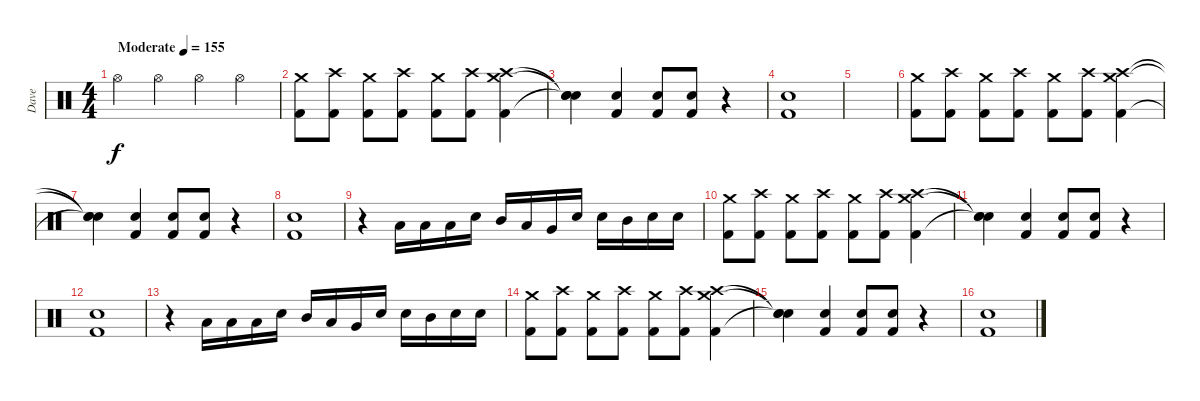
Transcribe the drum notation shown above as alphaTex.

\track ("Dave" "Dave") {instrument percussion}
\staff {score}
\articulation defaults
\ts (4 4)
\tempo (155 "Moderate")
\clef neutral
\ks c "Hi-Hat (open)".4{dy f} "Hi-Hat (open)".4 "Hi-Hat (open)".4 "Hi-Hat (open)".4
|
("Crash medium (hit)" "Kick (hit) 2").8 ("Crash high (hit)" "Kick (hit) 2").8 ("Crash medium (hit)" "Kick (hit) 2").8 ("Crash high (hit)" "Kick (hit) 2").8 ("Crash medium (hit)" "Kick (hit) 2").8 ("Crash high (hit)" "Kick (hit) 2").8 ("Crash medium (hit)" "Crash high (hit)" "Kick (hit) 2").4 |
("Snare (hit)"{t} "Snare (hit)"{t} "Snare (hit)"{t}).4 ("Snare (hit) 2" "Kick (hit) 2").4 ("Snare (hit) 2" "Kick (hit) 2").8 ("Snare (hit) 2" "Kick (hit) 2").8 r.4 |
("Snare (hit) 2" "Kick (hit) 2").1 |
|
("Crash medium (hit)" "Kick (hit) 2").8 ("Crash high (hit)" "Kick (hit) 2").8 ("Crash medium (hit)" "Kick (hit) 2").8 ("Crash high (hit)" "Kick (hit) 2").8 ("Crash medium (hit)" "Kick (hit) 2").8 ("Crash high (hit)" "Kick (hit) 2").8 ("Crash medium (hit)" "Crash high (hit)" "Kick (hit) 2").4 |
("Snare (hit)"{t} "Snare (hit)"{t} "Snare (hit)"{t}).4 ("Snare (hit) 2" "Kick (hit) 2").4 ("Snare (hit) 2" "Kick (hit) 2").8 ("Snare (hit) 2" "Kick (hit) 2").8 r.4 |
("Snare (hit) 2" "Kick (hit) 2").1 |
r.4 "Low Tom (hit)".16 "Low Tom (hit)".16 "Low Tom (hit)".16 "Snare (hit) 2".16 "Mid Tom (hit)".16 "Low Tom (hit)".16 "Very Low Tom (hit)".16 "Snare (hit) 2".16 "Snare (hit) 2".16 "Mid Tom (hit)".16 "Snare (hit) 2".16 "Snare (hit) 2".16 |
("Crash medium (hit)" "Kick (hit) 2").8 ("Crash high (hit)" "Kick (hit) 2").8 ("Crash medium (hit)" "Kick (hit) 2").8 ("Crash high (hit)" "Kick (hit) 2").8 ("Crash medium (hit)" "Kick (hit) 2").8 ("Crash high (hit)" "Kick (hit) 2").8 ("Crash medium (hit)" "Crash high (hit)" "Kick (hit) 2").4 |
("Snare (hit)"{t} "Snare (hit)"{t} "Snare (hit)"{t}).4 ("Snare (hit) 2" "Kick (hit) 2").4 ("Snare (hit) 2" "Kick (hit) 2").8 ("Snare (hit) 2" "Kick (hit) 2").8 r.4 |
("Snare (hit) 2" "Kick (hit) 2").1 |
r.4 "Low Tom (hit)".16 "Low Tom (hit)".16 "Low Tom (hit)".16 "Snare (hit) 2".16 "Mid Tom (hit)".16 "Low Tom (hit)".16 "Very Low Tom (hit)".16 "Snare (hit) 2".16 "Snare (hit) 2".16 "Mid Tom (hit)".16 "Snare (hit) 2".16 "Snare (hit) 2".16 |
("Crash medium (hit)" "Kick (hit) 2").8 ("Crash high (hit)" "Kick (hit) 2").8 ("Crash medium (hit)" "Kick (hit) 2").8 ("Crash high (hit)" "Kick (hit) 2").8 ("Crash medium (hit)" "Kick (hit) 2").8 ("Crash high (hit)" "Kick (hit) 2").8 ("Crash medium (hit)" "Crash high (hit)" "Kick (hit) 2").4 |
("Snare (hit)"{t} "Snare (hit)"{t} "Snare (hit)"{t}).4 ("Snare (hit) 2" "Kick (hit) 2").4 ("Snare (hit) 2" "Kick (hit) 2").8 ("Snare (hit) 2" "Kick (hit) 2").8 r.4 |
("Snare (hit) 2" "Kick (hit) 2").1
